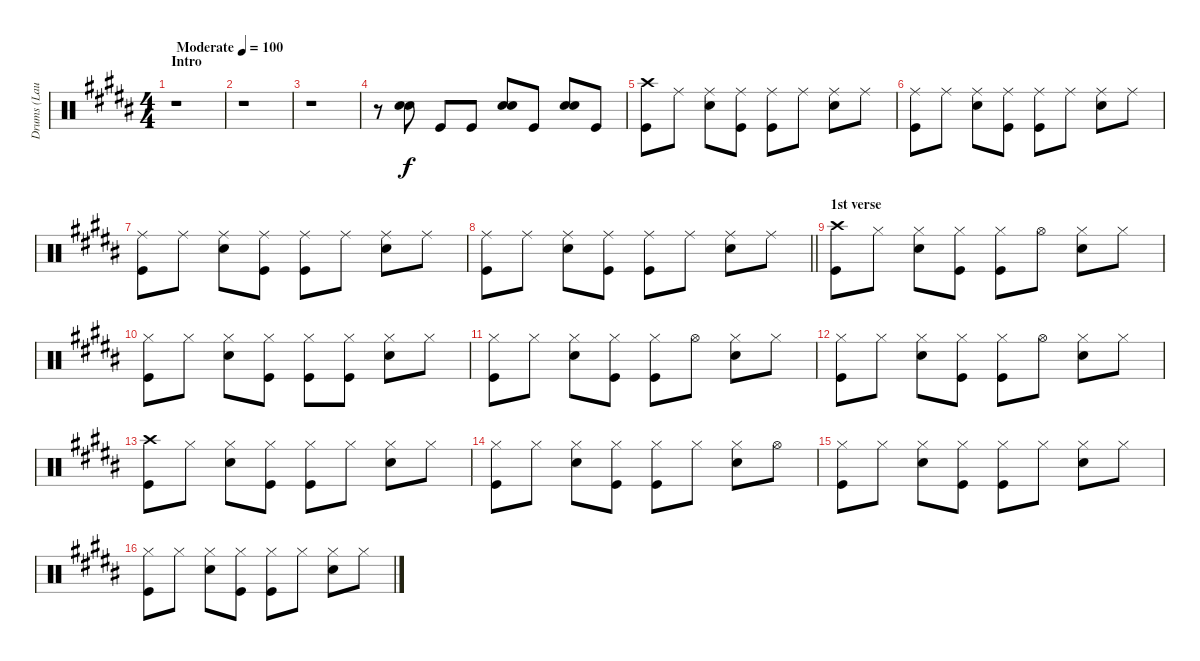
\track ("Drums (Laust Sonne)" "Drums (Lau") {instrument percussion}
\staff {score}
\articulation defaults
\ts (4 4)
\section ("" "Intro")
\tempo (100 "Moderate")
\clef neutral
\ks b
r.1{dy f} |
r.1 |
r.1 |
r.8 ("Snare (hit) 2" "Snare (hit) 2").8 "Kick (hit)".8 "Kick (hit)".8 ("Snare (hit) 2" "Snare (hit) 2").8 "Kick (hit)".8 ("Snare (hit) 2" "Snare (hit) 2").8 "Kick (hit)".8 |
("Crash high (hit)" "Kick (hit)").8 "Ride (middle)".8 ("Ride (middle)" "Snare (hit) 2").8 ("Ride (middle)" "Kick (hit)").8 ("Ride (middle)" "Kick (hit)").8 "Ride (middle)".8 ("Ride (middle)" "Snare (hit) 2").8 "Ride (middle)".8 |
("Ride (middle)" "Kick (hit)").8 "Ride (middle)".8 ("Ride (middle)" "Snare (hit) 2").8 ("Ride (middle)" "Kick (hit)").8 ("Ride (middle)" "Kick (hit)").8 "Ride (middle)".8 ("Ride (middle)" "Snare (hit) 2").8 "Ride (middle)".8 |
("Ride (middle)" "Kick (hit)").8 "Ride (middle)".8 ("Ride (middle)" "Snare (hit) 2").8 ("Ride (middle)" "Kick (hit)").8 ("Ride (middle)" "Kick (hit)").8 "Ride (middle)".8 ("Ride (middle)" "Snare (hit) 2").8 "Ride (middle)".8 |
\barLineRight lightlight
("Ride (middle)" "Kick (hit)").8 "Ride (middle)".8 ("Ride (middle)" "Snare (hit) 2").8 ("Ride (middle)" "Kick (hit)").8 ("Ride (middle)" "Kick (hit)").8 "Ride (middle)".8 ("Ride (middle)" "Snare (hit) 2").8 "Ride (middle)".8 |
\section ("" "1st verse")
("Crash high (hit)" "Kick (hit)").8 "Hi-Hat (closed)".8 ("Hi-Hat (closed)" "Snare (hit) 2").8 ("Hi-Hat (closed)" "Kick (hit)").8 ("Hi-Hat (closed)" "Kick (hit)").8 "Hi-Hat (open)".8 ("Hi-Hat (closed)" "Snare (hit) 2").8 "Hi-Hat (closed)".8 |
("Hi-Hat (closed)" "Kick (hit)").8 "Hi-Hat (closed)".8 ("Hi-Hat (closed)" "Snare (hit) 2").8 ("Hi-Hat (closed)" "Kick (hit)").8 ("Hi-Hat (closed)" "Kick (hit)").8 ("Hi-Hat (closed)" "Kick (hit)").8 ("Hi-Hat (closed)" "Snare (hit) 2").8 "Hi-Hat (closed)".8 |
("Hi-Hat (closed)" "Kick (hit)").8 "Hi-Hat (closed)".8 ("Hi-Hat (closed)" "Snare (hit) 2").8 ("Hi-Hat (closed)" "Kick (hit)").8 ("Hi-Hat (closed)" "Kick (hit)").8 "Hi-Hat (open)".8 ("Hi-Hat (closed)" "Snare (hit) 2").8 "Hi-Hat (closed)".8 |
("Hi-Hat (closed)" "Kick (hit)").8 "Hi-Hat (closed)".8 ("Hi-Hat (closed)" "Snare (hit) 2").8 ("Hi-Hat (closed)" "Kick (hit)").8 ("Hi-Hat (closed)" "Kick (hit)").8 "Hi-Hat (open)".8 ("Hi-Hat (closed)" "Snare (hit) 2").8 "Hi-Hat (closed)".8 |
("Crash high (hit)" "Kick (hit)").8 "Hi-Hat (closed)".8 ("Hi-Hat (closed)" "Snare (hit) 2").8 ("Hi-Hat (closed)" "Kick (hit)").8 ("Hi-Hat (closed)" "Kick (hit)").8 "Hi-Hat (closed)".8 ("Hi-Hat (closed)" "Snare (hit) 2").8 "Hi-Hat (closed)".8 |
("Hi-Hat (closed)" "Kick (hit)").8 "Hi-Hat (closed)".8 ("Hi-Hat (closed)" "Snare (hit) 2").8 ("Hi-Hat (closed)" "Kick (hit)").8 ("Hi-Hat (closed)" "Kick (hit)").8 "Hi-Hat (closed)".8 ("Hi-Hat (closed)" "Snare (hit) 2").8 "Hi-Hat (open)".8 |
("Hi-Hat (closed)" "Kick (hit)").8 "Hi-Hat (closed)".8 ("Hi-Hat (closed)" "Snare (hit) 2").8 ("Hi-Hat (closed)" "Kick (hit)").8 ("Hi-Hat (closed)" "Kick (hit)").8 "Hi-Hat (closed)".8 ("Hi-Hat (closed)" "Snare (hit) 2").8 "Hi-Hat (closed)".8 |
("Hi-Hat (closed)" "Kick (hit)").8 "Hi-Hat (closed)".8 ("Hi-Hat (closed)" "Snare (hit) 2").8 ("Hi-Hat (closed)" "Kick (hit)").8 ("Hi-Hat (closed)" "Kick (hit)").8 "Hi-Hat (closed)".8 ("Hi-Hat (closed)" "Snare (hit) 2").8 "Hi-Hat (closed)".8
